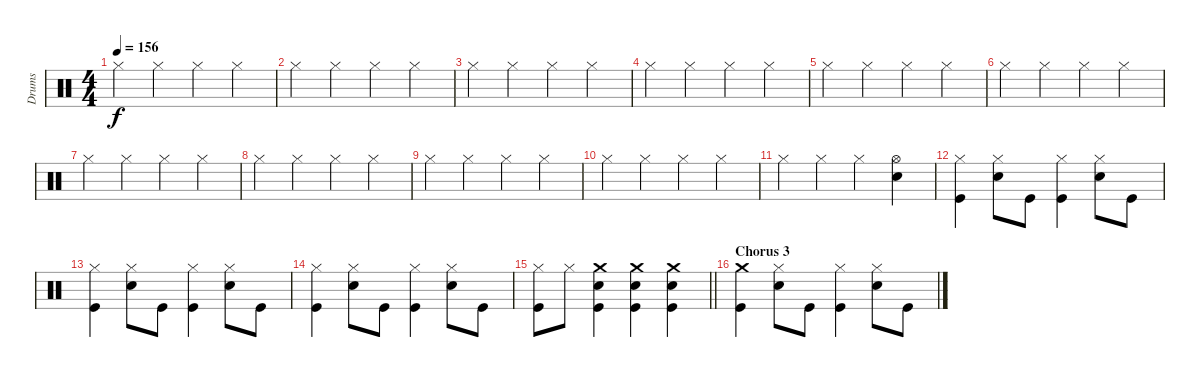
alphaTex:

\track ("Drums" "Drums") {instrument percussion}
\staff {score}
\articulation defaults
\ts (4 4)
\tempo 156
\clef neutral
\ks c "Hi-Hat (closed)".4{dy f} "Hi-Hat (closed)".4 "Hi-Hat (closed)".4 "Hi-Hat (closed)".4
|
"Hi-Hat (closed)".4 "Hi-Hat (closed)".4 "Hi-Hat (closed)".4 "Hi-Hat (closed)".4 |
"Hi-Hat (closed)".4 "Hi-Hat (closed)".4 "Hi-Hat (closed)".4 "Hi-Hat (closed)".4 |
"Hi-Hat (closed)".4 "Hi-Hat (closed)".4 "Hi-Hat (closed)".4 "Hi-Hat (closed)".4 |
"Hi-Hat (closed)".4 "Hi-Hat (closed)".4 "Hi-Hat (closed)".4 "Hi-Hat (closed)".4 |
"Hi-Hat (closed)".4 "Hi-Hat (closed)".4 "Hi-Hat (closed)".4 "Hi-Hat (closed)".4 |
"Hi-Hat (closed)".4 "Hi-Hat (closed)".4 "Hi-Hat (closed)".4 "Hi-Hat (closed)".4 |
"Hi-Hat (closed)".4 "Hi-Hat (closed)".4 "Hi-Hat (closed)".4 "Hi-Hat (closed)".4 |
"Hi-Hat (closed)".4 "Hi-Hat (closed)".4 "Hi-Hat (closed)".4 "Hi-Hat (closed)".4 |
"Hi-Hat (closed)".4 "Hi-Hat (closed)".4 "Hi-Hat (closed)".4 "Hi-Hat (closed)".4 |
"Hi-Hat (closed)".4 "Hi-Hat (closed)".4 "Hi-Hat (closed)".4 ("Hi-Hat (open)" "Snare (hit) 2").4 |
("Hi-Hat (closed)" "Kick (hit)").4 ("Hi-Hat (closed)" "Snare (hit) 2").8 "Kick (hit)".8 ("Hi-Hat (closed)" "Kick (hit)").4 ("Hi-Hat (closed)" "Snare (hit) 2").8 "Kick (hit)".8 |
("Hi-Hat (closed)" "Kick (hit)").4 ("Hi-Hat (closed)" "Snare (hit) 2").8 "Kick (hit)".8 ("Hi-Hat (closed)" "Kick (hit)").4 ("Hi-Hat (closed)" "Snare (hit) 2").8 "Kick (hit)".8 |
("Hi-Hat (closed)" "Kick (hit)").4 ("Hi-Hat (closed)" "Snare (hit) 2").8 "Kick (hit)".8 ("Hi-Hat (closed)" "Kick (hit)").4 ("Hi-Hat (closed)" "Snare (hit) 2").8 "Kick (hit)".8 |
\barLineRight lightlight
("Hi-Hat (closed)" "Kick (hit)").8 "Hi-Hat (closed)".8 ("Crash medium (hit)" "Snare (hit) 2" "Kick (hit)").4 ("Crash medium (hit)" "Snare (hit) 2" "Kick (hit)").4 ("Crash medium (hit)" "Snare (hit) 2" "Kick (hit)").4 |
\section ("" "Chorus 3")
("Crash medium (hit)" "Kick (hit)").4 ("Hi-Hat (closed)" "Snare (hit) 2").8 "Kick (hit)".8 ("Hi-Hat (closed)" "Kick (hit)").4 ("Hi-Hat (closed)" "Snare (hit) 2").8 "Kick (hit)".8
